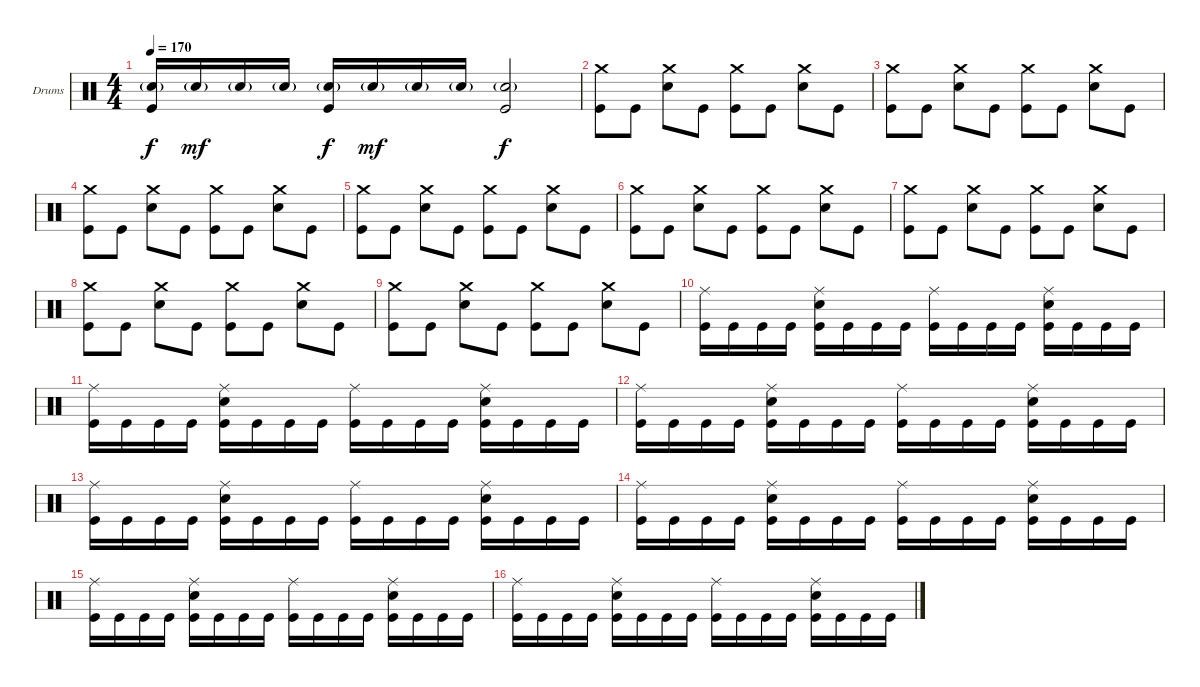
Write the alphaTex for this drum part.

\defaultSystemsLayout 4
\bracketExtendMode groupsimilarinstruments
\firstSystemTrackNameOrientation horizontal
\otherSystemsTrackNameOrientation horizontal
\track ("Drumkit" "Drums") {instrument percussion}
\staff {score}
\articulation defaults
\ts (4 4)
\tempo 170
\clef neutral
\scale
0.333333
\ks c
("Snare (hit) 2"{g} "Kick (hit)").16{dy f} "Snare (hit) 2"{g}.16{dy mf} "Snare (hit) 2"{g}.16 "Snare (hit) 2"{g}.16 ("Snare (hit) 2"{g} "Kick (hit)").16{dy f} "Snare (hit) 2"{g}.16{dy mf} "Snare (hit) 2"{g}.16 "Snare (hit) 2"{g}.16 ("Snare (hit) 2"{g} "Kick (hit)").2{dy f} |
\scale
0.333333 ("Crash medium (hit)" "Kick (hit)").8 "Kick (hit)".8 ("Crash medium (hit)" "Snare (hit) 2").8 "Kick (hit)".8 ("Crash medium (hit)" "Kick (hit)").8 "Kick (hit)".8 ("Crash medium (hit)" "Snare (hit) 2").8 "Kick (hit)".8 |
\scale
0.333333 ("Crash medium (hit)" "Kick (hit)").8 "Kick (hit)".8 ("Crash medium (hit)" "Snare (hit) 2").8 "Kick (hit)".8 ("Crash medium (hit)" "Kick (hit)").8 "Kick (hit)".8 ("Crash medium (hit)" "Snare (hit) 2").8 "Kick (hit)".8 |
\scale
0.333333 ("Crash medium (hit)" "Kick (hit)").8 "Kick (hit)".8 ("Crash medium (hit)" "Snare (hit) 2").8 "Kick (hit)".8 ("Crash medium (hit)" "Kick (hit)").8 "Kick (hit)".8 ("Crash medium (hit)" "Snare (hit) 2").8 "Kick (hit)".8 |
\scale
0.333333 ("Crash medium (hit)" "Kick (hit)").8 "Kick (hit)".8 ("Crash medium (hit)" "Snare (hit) 2").8 "Kick (hit)".8 ("Crash medium (hit)" "Kick (hit)").8 "Kick (hit)".8 ("Crash medium (hit)" "Snare (hit) 2").8 "Kick (hit)".8 |
\scale
0.333333 ("Crash medium (hit)" "Kick (hit)").8 "Kick (hit)".8 ("Crash medium (hit)" "Snare (hit) 2").8 "Kick (hit)".8 ("Crash medium (hit)" "Kick (hit)").8 "Kick (hit)".8 ("Crash medium (hit)" "Snare (hit) 2").8 "Kick (hit)".8 |
\scale
0.333333 ("Crash medium (hit)" "Kick (hit)").8 "Kick (hit)".8 ("Crash medium (hit)" "Snare (hit) 2").8 "Kick (hit)".8 ("Crash medium (hit)" "Kick (hit)").8 "Kick (hit)".8 ("Crash medium (hit)" "Snare (hit) 2").8 "Kick (hit)".8 |
\scale
0.333333 ("Crash medium (hit)" "Kick (hit)").8 "Kick (hit)".8 ("Crash medium (hit)" "Snare (hit) 2").8 "Kick (hit)".8 ("Crash medium (hit)" "Kick (hit)").8 "Kick (hit)".8 ("Crash medium (hit)" "Snare (hit) 2").8 "Kick (hit)".8 |
\scale
0.333333 ("Crash medium (hit)" "Kick (hit)").8 "Kick (hit)".8 ("Crash medium (hit)" "Snare (hit) 2").8 "Kick (hit)".8 ("Crash medium (hit)" "Kick (hit)").8 "Kick (hit)".8 ("Crash medium (hit)" "Snare (hit) 2").8 "Kick (hit)".8 |
\scale
0.333333 ("Ride (middle)" "Kick (hit)").16 "Kick (hit)".16 "Kick (hit)".16 "Kick (hit)".16 ("Kick (hit)" "Ride (middle)" "Snare (hit) 2").16 "Kick (hit)".16 "Kick (hit)".16 "Kick (hit)".16 ("Kick (hit)" "Ride (middle)").16 "Kick (hit)".16 "Kick (hit)".16 "Kick (hit)".16 ("Kick (hit)" "Ride (middle)" "Snare (hit) 2").16 "Kick (hit)".16 "Kick (hit)".16 "Kick (hit)".16 |
\scale
0.333333 ("Ride (middle)" "Kick (hit)").16 "Kick (hit)".16 "Kick (hit)".16 "Kick (hit)".16 ("Kick (hit)" "Ride (middle)" "Snare (hit) 2").16 "Kick (hit)".16 "Kick (hit)".16 "Kick (hit)".16 ("Kick (hit)" "Ride (middle)").16 "Kick (hit)".16 "Kick (hit)".16 "Kick (hit)".16 ("Kick (hit)" "Ride (middle)" "Snare (hit) 2").16 "Kick (hit)".16 "Kick (hit)".16 "Kick (hit)".16 |
\scale
0.333333 ("Ride (middle)" "Kick (hit)").16 "Kick (hit)".16 "Kick (hit)".16 "Kick (hit)".16 ("Kick (hit)" "Ride (middle)" "Snare (hit) 2").16 "Kick (hit)".16 "Kick (hit)".16 "Kick (hit)".16 ("Kick (hit)" "Ride (middle)").16 "Kick (hit)".16 "Kick (hit)".16 "Kick (hit)".16 ("Kick (hit)" "Ride (middle)" "Snare (hit) 2").16 "Kick (hit)".16 "Kick (hit)".16 "Kick (hit)".16 |
\scale
0.333333 ("Ride (middle)" "Kick (hit)").16 "Kick (hit)".16 "Kick (hit)".16 "Kick (hit)".16 ("Kick (hit)" "Ride (middle)" "Snare (hit) 2").16 "Kick (hit)".16 "Kick (hit)".16 "Kick (hit)".16 ("Kick (hit)" "Ride (middle)").16 "Kick (hit)".16 "Kick (hit)".16 "Kick (hit)".16 ("Kick (hit)" "Ride (middle)" "Snare (hit) 2").16 "Kick (hit)".16 "Kick (hit)".16 "Kick (hit)".16 |
\scale
0.333333 ("Ride (middle)" "Kick (hit)").16 "Kick (hit)".16 "Kick (hit)".16 "Kick (hit)".16 ("Kick (hit)" "Ride (middle)" "Snare (hit) 2").16 "Kick (hit)".16 "Kick (hit)".16 "Kick (hit)".16 ("Kick (hit)" "Ride (middle)").16 "Kick (hit)".16 "Kick (hit)".16 "Kick (hit)".16 ("Kick (hit)" "Ride (middle)" "Snare (hit) 2").16 "Kick (hit)".16 "Kick (hit)".16 "Kick (hit)".16 |
\scale
0.333333 ("Ride (middle)" "Kick (hit)").16 "Kick (hit)".16 "Kick (hit)".16 "Kick (hit)".16 ("Kick (hit)" "Ride (middle)" "Snare (hit) 2").16 "Kick (hit)".16 "Kick (hit)".16 "Kick (hit)".16 ("Kick (hit)" "Ride (middle)").16 "Kick (hit)".16 "Kick (hit)".16 "Kick (hit)".16 ("Kick (hit)" "Ride (middle)" "Snare (hit) 2").16 "Kick (hit)".16 "Kick (hit)".16 "Kick (hit)".16 |
\scale
0.333333 ("Ride (middle)" "Kick (hit)").16 "Kick (hit)".16 "Kick (hit)".16 "Kick (hit)".16 ("Kick (hit)" "Ride (middle)" "Snare (hit) 2").16 "Kick (hit)".16 "Kick (hit)".16 "Kick (hit)".16 ("Kick (hit)" "Ride (middle)").16 "Kick (hit)".16 "Kick (hit)".16 "Kick (hit)".16 ("Kick (hit)" "Ride (middle)" "Snare (hit) 2").16 "Kick (hit)".16 "Kick (hit)".16 "Kick (hit)".16
